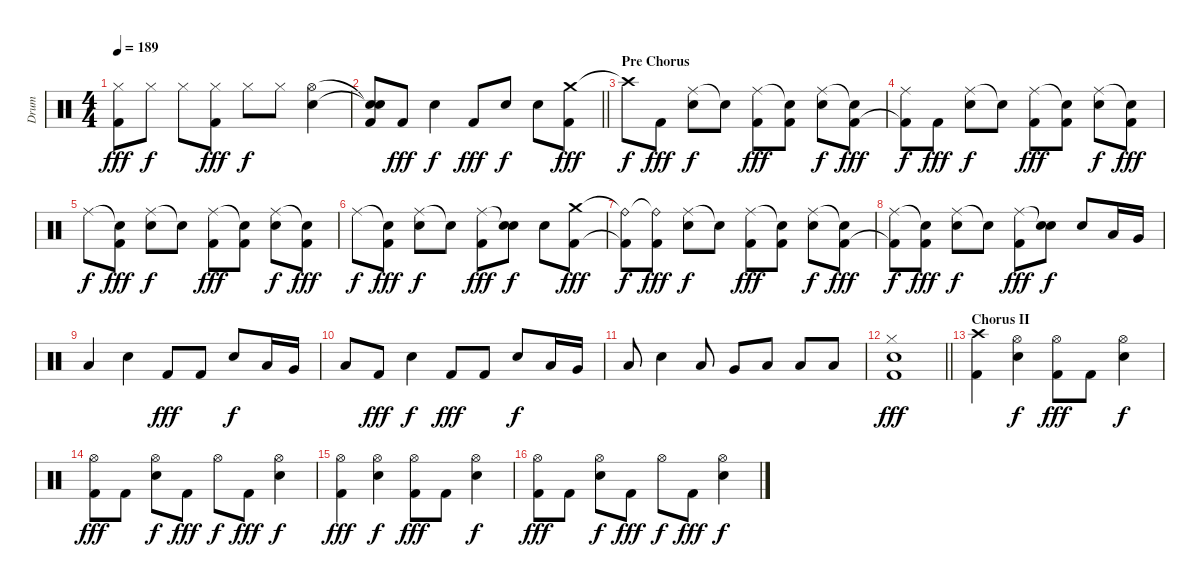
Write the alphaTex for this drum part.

\track ("Drum" "Drum") {instrument percussion}
\staff {score}
\articulation defaults
\ts (4 4)
\tempo 189
\clef neutral
\ks c
("Hi-Hat (closed)" "Kick (hit) 2").8{dy fff} "Hi-Hat (closed)".8{dy f} "Hi-Hat (closed)".8 ("Hi-Hat (closed)" "Kick (hit) 2").8{dy fff} "Hi-Hat (closed)".8{dy f} "Hi-Hat (closed)".8 ("Hi-Hat (open)" "Electric Snare (hit)").4 |
\barLineRight lightlight
("Snare (hit)"{t} "Electric Snare (hit)"{t} "Kick (hit) 2").8 "Kick (hit) 2".8{dy fff} "Electric Snare (hit)".4{dy f} "Kick (hit) 2".8{dy fff} "Electric Snare (hit)".8{dy f} "Electric Snare (hit)".8 ("Crash medium (hit)" "Kick (hit) 2").8{dy fff} |
\section ("" "Pre Chorus")
"Crash high (hit)"{t}.8{dy f} "Kick (hit) 2".8{dy fff} ("Ride (middle)" "Electric Snare (hit)").8{dy f} "Snare (hit)"{t}.8 ("Ride (middle)" "Kick (hit) 2").8{dy fff} ("Snare (hit)"{t} "Kick (hit) 2").8 ("Ride (middle)" "Electric Snare (hit)").8{dy f} ("Snare (hit)"{t} "Kick (hit) 2").8{dy fff} |
("Ride (middle)" "Kick (hit) 2"{t}).8{dy f} "Kick (hit) 2".8{dy fff} ("Ride (middle)" "Electric Snare (hit)").8{dy f} "Snare (hit)"{t}.8 ("Ride (middle)" "Kick (hit) 2").8{dy fff} ("Snare (hit)"{t} "Kick (hit) 2").8 ("Ride (middle)" "Electric Snare (hit)").8{dy f} ("Snare (hit)"{t} "Kick (hit) 2").8{dy fff} |
"Ride (middle)".8{dy f} ("Snare (hit)"{t} "Kick (hit) 2").8{dy fff} ("Ride (middle)" "Electric Snare (hit)").8{dy f} "Snare (hit)"{t}.8 ("Ride (middle)" "Kick (hit) 2").8{dy fff} ("Snare (hit)"{t} "Kick (hit) 2").8 ("Ride (middle)" "Electric Snare (hit)").8{dy f} ("Snare (hit)"{t} "Kick (hit) 2").8{dy fff} |
"Ride (middle)".8{dy f} ("Snare (hit)"{t} "Kick (hit) 2").8{dy fff} ("Ride (middle)" "Electric Snare (hit)").8{dy f} "Snare (hit)"{t}.8 ("Ride (middle)" "Kick (hit) 2").8{dy fff} ("Snare (hit)"{t} "Electric Snare (hit)").8{dy f} "Electric Snare (hit)".8 ("Crash medium (hit)" "Kick (hit) 2").8{dy fff} |
("Ride (bell)"{t} "Kick (hit) 2"{t}).8{dy f} ("Ride (bell)"{t} "Kick (hit) 2").8{dy fff} ("Ride (middle)" "Electric Snare (hit)").8{dy f} "Snare (hit)"{t}.8 ("Ride (middle)" "Kick (hit) 2").8{dy fff} ("Snare (hit)"{t} "Kick (hit) 2").8 ("Ride (middle)" "Electric Snare (hit)").8{dy f} ("Snare (hit)"{t} "Kick (hit) 2").8{dy fff} |
("Ride (middle)" "Kick (hit) 2"{t}).8{dy f} ("Snare (hit)"{t} "Kick (hit) 2").8{dy fff} ("Ride (middle)" "Electric Snare (hit)").8{dy f} "Snare (hit)"{t}.8 ("Ride (middle)" "Kick (hit) 2").8{dy fff} ("Snare (hit)"{t} "Electric Snare (hit)").8{dy f} "Electric Snare (hit)".8 "Low Tom (hit)".16 "Very Low Tom (hit)".16 |
"Low Floor Tom (hit)".4 "Electric Snare (hit)".4 "Kick (hit) 2".8{dy fff} "Kick (hit) 2".8 "Electric Snare (hit)".8{dy f} "Low Tom (hit)".16 "Very Low Tom (hit)".16 |
"Low Floor Tom (hit)".8 "Kick (hit) 2".8{dy fff} "Electric Snare (hit)".4{dy f} "Kick (hit) 2".8{dy fff} "Kick (hit) 2".8 "Electric Snare (hit)".8{dy f} "Low Tom (hit)".16 "Very Low Tom (hit)".16 |
"Low Floor Tom (hit)".8 "Electric Snare (hit)".4 "Low Tom (hit)".8 "Very Low Tom (hit)".8 "Low Tom (hit)".8 "Low Tom (hit)".8 "Low Floor Tom (hit)".8 |
\barLineRight lightlight
("Hi-Hat (closed)" "Electric Snare (hit)" "Kick (hit) 2").1{dy fff} |
\section ("" "Chorus II")
("Crash high (hit)" "Kick (hit) 2").4 ("Hi-Hat (open)" "Electric Snare (hit)").4{dy f} ("Hi-Hat (open)" "Kick (hit) 2").8{dy fff} "Kick (hit) 2".8 ("Hi-Hat (open)" "Electric Snare (hit)").4{dy f} |
("Hi-Hat (open)" "Kick (hit) 2").8{dy fff} "Kick (hit) 2".8 ("Hi-Hat (open)" "Electric Snare (hit)").8{dy f} "Kick (hit) 2".8{dy fff} "Hi-Hat (open)".8{dy f} "Kick (hit) 2".8{dy fff} ("Hi-Hat (open)" "Electric Snare (hit)").4{dy f} |
("Hi-Hat (open)" "Kick (hit) 2").4{dy fff} ("Hi-Hat (open)" "Electric Snare (hit)").4{dy f} ("Hi-Hat (open)" "Kick (hit) 2").8{dy fff} "Kick (hit) 2".8 ("Hi-Hat (open)" "Electric Snare (hit)").4{dy f} |
("Hi-Hat (open)" "Kick (hit) 2").8{dy fff} "Kick (hit) 2".8 ("Hi-Hat (open)" "Electric Snare (hit)").8{dy f} "Kick (hit) 2".8{dy fff} "Hi-Hat (open)".8{dy f} "Kick (hit) 2".8{dy fff} ("Hi-Hat (open)" "Electric Snare (hit)").4{dy f}
